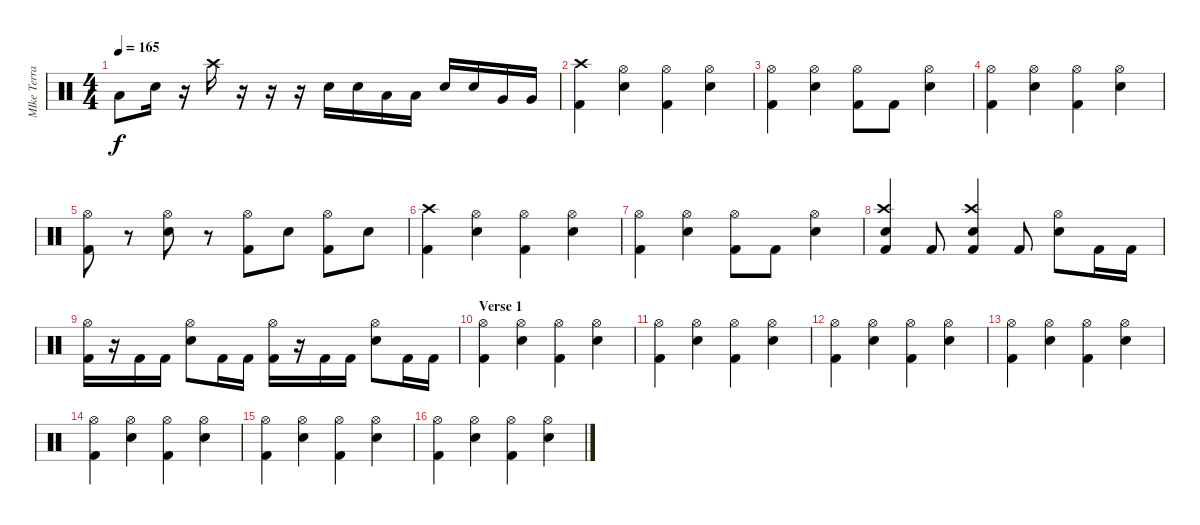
\track ("MIke Terrana - Batteria" "MIke Terra") {instrument percussion}
\staff {score}
\articulation defaults
\ts (4 4)
\tempo 165
\clef neutral
\ks c "Low Tom (hit)".8{dy f} "Electric Snare (hit)".16
r.16 "Crash high (hit)".16 r.16 r.16 r.16 "Electric Snare (hit)".16 "Electric Snare (hit)".16 "Low Tom (hit)".16 "Low Tom (hit)".16 "Electric Snare (hit)".16 "Electric Snare (hit)".16 "Very Low Tom (hit)".16 "Very Low Tom (hit)".16 |
("Kick (hit) 2" "Crash high (hit)").4 ("Electric Snare (hit)" "Hi-Hat (open)").4 ("Kick (hit) 2" "Hi-Hat (open)").4 ("Electric Snare (hit)" "Hi-Hat (open)").4 |
("Kick (hit) 2" "Hi-Hat (open)").4 ("Electric Snare (hit)" "Hi-Hat (open)").4 ("Kick (hit) 2" "Hi-Hat (open)").8 "Kick (hit) 2".8 ("Electric Snare (hit)" "Hi-Hat (open)").4 |
("Kick (hit) 2" "Hi-Hat (open)").4 ("Electric Snare (hit)" "Hi-Hat (open)").4 ("Kick (hit) 2" "Hi-Hat (open)").4 ("Electric Snare (hit)" "Hi-Hat (open)").4 |
("Kick (hit) 2" "Hi-Hat (open)").8 r.8 ("Electric Snare (hit)" "Hi-Hat (open)").8 r.8 ("Kick (hit) 2" "Hi-Hat (open)").8 "Electric Snare (hit)".8 ("Kick (hit) 2" "Hi-Hat (open)").8 "Electric Snare (hit)".8 |
("Kick (hit) 2" "Crash high (hit)").4 ("Electric Snare (hit)" "Hi-Hat (open)").4 ("Kick (hit) 2" "Hi-Hat (open)").4 ("Electric Snare (hit)" "Hi-Hat (open)").4 |
("Kick (hit) 2" "Hi-Hat (open)").4 ("Electric Snare (hit)" "Hi-Hat (open)").4 ("Kick (hit) 2" "Hi-Hat (open)").8 "Kick (hit) 2".8 ("Electric Snare (hit)" "Hi-Hat (open)").4 |
("Kick (hit) 2" "Electric Snare (hit)" "Crash high (hit)").4 "Kick (hit) 2".8 ("Kick (hit) 2" "Electric Snare (hit)" "Crash high (hit)").4 "Kick (hit) 2".8 ("Electric Snare (hit)" "Hi-Hat (open)").8 "Kick (hit) 2".16 "Kick (hit) 2".16 |
("Kick (hit) 2" "Hi-Hat (open)").16 r.16 "Kick (hit) 2".16 "Kick (hit) 2".16 ("Electric Snare (hit)" "Hi-Hat (open)").8 "Kick (hit) 2".16 "Kick (hit) 2".16 ("Kick (hit) 2" "Hi-Hat (open)").16 r.16 "Kick (hit) 2".16 "Kick (hit) 2".16 ("Electric Snare (hit)" "Hi-Hat (open)").8 "Kick (hit) 2".16 "Kick (hit) 2".16 |
\section ("" "Verse 1")
("Kick (hit) 2" "Hi-Hat (open)").4 ("Electric Snare (hit)" "Hi-Hat (open)").4 ("Kick (hit) 2" "Hi-Hat (open)").4 ("Electric Snare (hit)" "Hi-Hat (open)").4 |
("Kick (hit) 2" "Hi-Hat (open)").4 ("Electric Snare (hit)" "Hi-Hat (open)").4 ("Kick (hit) 2" "Hi-Hat (open)").4 ("Electric Snare (hit)" "Hi-Hat (open)").4 |
("Kick (hit) 2" "Hi-Hat (open)").4 ("Electric Snare (hit)" "Hi-Hat (open)").4 ("Kick (hit) 2" "Hi-Hat (open)").4 ("Electric Snare (hit)" "Hi-Hat (open)").4 |
("Kick (hit) 2" "Hi-Hat (open)").4 ("Electric Snare (hit)" "Hi-Hat (open)").4 ("Kick (hit) 2" "Hi-Hat (open)").4 ("Electric Snare (hit)" "Hi-Hat (open)").4 |
("Kick (hit) 2" "Hi-Hat (open)").4 ("Electric Snare (hit)" "Hi-Hat (open)").4 ("Kick (hit) 2" "Hi-Hat (open)").4 ("Electric Snare (hit)" "Hi-Hat (open)").4 |
("Kick (hit) 2" "Hi-Hat (open)").4 ("Electric Snare (hit)" "Hi-Hat (open)").4 ("Kick (hit) 2" "Hi-Hat (open)").4 ("Electric Snare (hit)" "Hi-Hat (open)").4 |
("Kick (hit) 2" "Hi-Hat (open)").4 ("Electric Snare (hit)" "Hi-Hat (open)").4 ("Kick (hit) 2" "Hi-Hat (open)").4 ("Electric Snare (hit)" "Hi-Hat (open)").4
